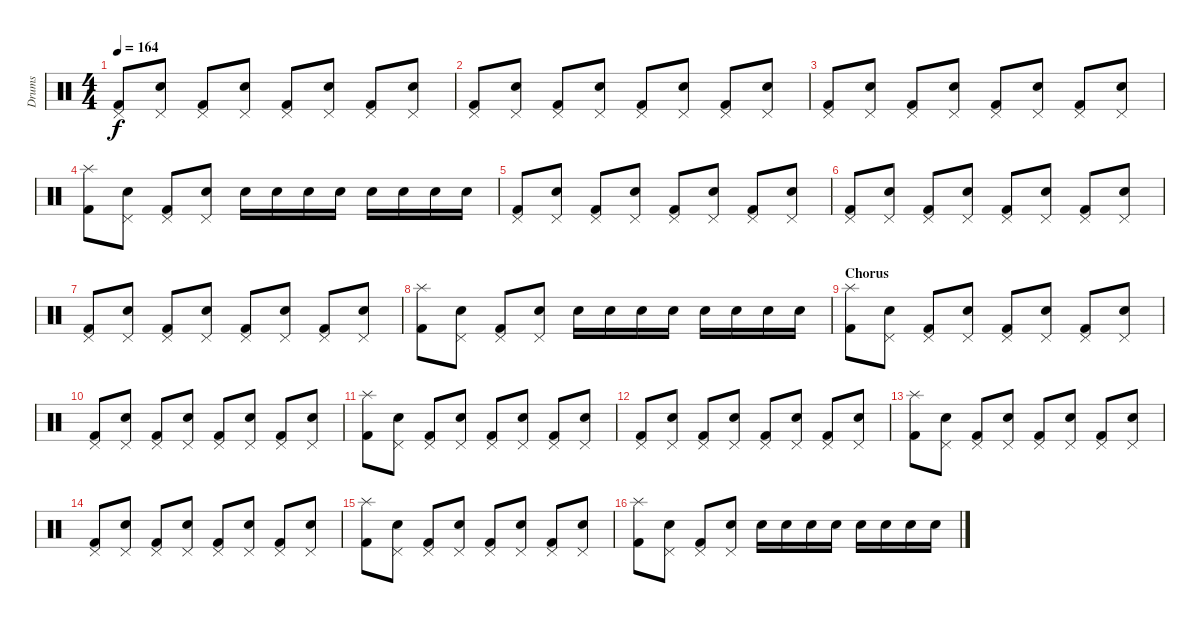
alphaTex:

\track ("Drums" "Drums") {instrument percussion}
\staff {score}
\articulation defaults
\ts (4 4)
\tempo 164
\clef neutral
\ks c
("Pedal Hi-Hat (hit)" "Kick (hit) 2").8{dy f} ("Pedal Hi-Hat (hit)" "Electric Snare (hit)").8 ("Pedal Hi-Hat (hit)" "Kick (hit) 2").8 ("Pedal Hi-Hat (hit)" "Electric Snare (hit)").8 ("Pedal Hi-Hat (hit)" "Kick (hit) 2").8 ("Pedal Hi-Hat (hit)" "Electric Snare (hit)").8 ("Pedal Hi-Hat (hit)" "Kick (hit) 2").8 ("Pedal Hi-Hat (hit)" "Electric Snare (hit)").8 |
("Pedal Hi-Hat (hit)" "Kick (hit) 2").8 ("Pedal Hi-Hat (hit)" "Electric Snare (hit)").8 ("Pedal Hi-Hat (hit)" "Kick (hit) 2").8 ("Pedal Hi-Hat (hit)" "Electric Snare (hit)").8 ("Pedal Hi-Hat (hit)" "Kick (hit) 2").8 ("Pedal Hi-Hat (hit)" "Electric Snare (hit)").8 ("Pedal Hi-Hat (hit)" "Kick (hit) 2").8 ("Pedal Hi-Hat (hit)" "Electric Snare (hit)").8 |
("Pedal Hi-Hat (hit)" "Kick (hit) 2").8 ("Pedal Hi-Hat (hit)" "Electric Snare (hit)").8 ("Pedal Hi-Hat (hit)" "Kick (hit) 2").8 ("Pedal Hi-Hat (hit)" "Electric Snare (hit)").8 ("Pedal Hi-Hat (hit)" "Kick (hit) 2").8 ("Pedal Hi-Hat (hit)" "Electric Snare (hit)").8 ("Pedal Hi-Hat (hit)" "Kick (hit) 2").8 ("Pedal Hi-Hat (hit)" "Electric Snare (hit)").8 |
("Splash (hit)" "Kick (hit) 2").8 ("Pedal Hi-Hat (hit)" "Electric Snare (hit)").8 ("Pedal Hi-Hat (hit)" "Kick (hit) 2").8 ("Pedal Hi-Hat (hit)" "Electric Snare (hit)").8 "Electric Snare (hit)".16 "Electric Snare (hit)".16 "Electric Snare (hit)".16 "Electric Snare (hit)".16 "Electric Snare (hit)".16 "Electric Snare (hit)".16 "Electric Snare (hit)".16 "Electric Snare (hit)".16 |
("Pedal Hi-Hat (hit)" "Kick (hit) 2").8 ("Pedal Hi-Hat (hit)" "Electric Snare (hit)").8 ("Pedal Hi-Hat (hit)" "Kick (hit) 2").8 ("Pedal Hi-Hat (hit)" "Electric Snare (hit)").8 ("Pedal Hi-Hat (hit)" "Kick (hit) 2").8 ("Pedal Hi-Hat (hit)" "Electric Snare (hit)").8 ("Pedal Hi-Hat (hit)" "Kick (hit) 2").8 ("Pedal Hi-Hat (hit)" "Electric Snare (hit)").8 |
("Pedal Hi-Hat (hit)" "Kick (hit) 2").8 ("Pedal Hi-Hat (hit)" "Electric Snare (hit)").8 ("Pedal Hi-Hat (hit)" "Kick (hit) 2").8 ("Pedal Hi-Hat (hit)" "Electric Snare (hit)").8 ("Pedal Hi-Hat (hit)" "Kick (hit) 2").8 ("Pedal Hi-Hat (hit)" "Electric Snare (hit)").8 ("Pedal Hi-Hat (hit)" "Kick (hit) 2").8 ("Pedal Hi-Hat (hit)" "Electric Snare (hit)").8 |
("Pedal Hi-Hat (hit)" "Kick (hit) 2").8 ("Pedal Hi-Hat (hit)" "Electric Snare (hit)").8 ("Pedal Hi-Hat (hit)" "Kick (hit) 2").8 ("Pedal Hi-Hat (hit)" "Electric Snare (hit)").8 ("Pedal Hi-Hat (hit)" "Kick (hit) 2").8 ("Pedal Hi-Hat (hit)" "Electric Snare (hit)").8 ("Pedal Hi-Hat (hit)" "Kick (hit) 2").8 ("Pedal Hi-Hat (hit)" "Electric Snare (hit)").8 |
("Splash (hit)" "Kick (hit) 2").8 ("Pedal Hi-Hat (hit)" "Electric Snare (hit)").8 ("Pedal Hi-Hat (hit)" "Kick (hit) 2").8 ("Pedal Hi-Hat (hit)" "Electric Snare (hit)").8 "Electric Snare (hit)".16 "Electric Snare (hit)".16 "Electric Snare (hit)".16 "Electric Snare (hit)".16 "Electric Snare (hit)".16 "Electric Snare (hit)".16 "Electric Snare (hit)".16 "Electric Snare (hit)".16 |
\section ("" "Chorus")
("Splash (hit)" "Kick (hit) 2").8 ("Pedal Hi-Hat (hit)" "Electric Snare (hit)").8 ("Pedal Hi-Hat (hit)" "Kick (hit) 2").8 ("Pedal Hi-Hat (hit)" "Electric Snare (hit)").8 ("Pedal Hi-Hat (hit)" "Kick (hit) 2").8 ("Pedal Hi-Hat (hit)" "Electric Snare (hit)").8 ("Pedal Hi-Hat (hit)" "Kick (hit) 2").8 ("Pedal Hi-Hat (hit)" "Electric Snare (hit)").8 |
("Pedal Hi-Hat (hit)" "Kick (hit) 2").8 ("Pedal Hi-Hat (hit)" "Electric Snare (hit)").8 ("Pedal Hi-Hat (hit)" "Kick (hit) 2").8 ("Pedal Hi-Hat (hit)" "Electric Snare (hit)").8 ("Pedal Hi-Hat (hit)" "Kick (hit) 2").8 ("Pedal Hi-Hat (hit)" "Electric Snare (hit)").8 ("Pedal Hi-Hat (hit)" "Kick (hit) 2").8 ("Pedal Hi-Hat (hit)" "Electric Snare (hit)").8 |
("Splash (hit)" "Kick (hit) 2").8 ("Pedal Hi-Hat (hit)" "Electric Snare (hit)").8 ("Pedal Hi-Hat (hit)" "Kick (hit) 2").8 ("Pedal Hi-Hat (hit)" "Electric Snare (hit)").8 ("Pedal Hi-Hat (hit)" "Kick (hit) 2").8 ("Pedal Hi-Hat (hit)" "Electric Snare (hit)").8 ("Pedal Hi-Hat (hit)" "Kick (hit) 2").8 ("Pedal Hi-Hat (hit)" "Electric Snare (hit)").8 |
("Pedal Hi-Hat (hit)" "Kick (hit) 2").8 ("Pedal Hi-Hat (hit)" "Electric Snare (hit)").8 ("Pedal Hi-Hat (hit)" "Kick (hit) 2").8 ("Pedal Hi-Hat (hit)" "Electric Snare (hit)").8 ("Pedal Hi-Hat (hit)" "Kick (hit) 2").8 ("Pedal Hi-Hat (hit)" "Electric Snare (hit)").8 ("Pedal Hi-Hat (hit)" "Kick (hit) 2").8 ("Pedal Hi-Hat (hit)" "Electric Snare (hit)").8 |
("Splash (hit)" "Kick (hit) 2").8 ("Pedal Hi-Hat (hit)" "Electric Snare (hit)").8 ("Pedal Hi-Hat (hit)" "Kick (hit) 2").8 ("Pedal Hi-Hat (hit)" "Electric Snare (hit)").8 ("Pedal Hi-Hat (hit)" "Kick (hit) 2").8 ("Pedal Hi-Hat (hit)" "Electric Snare (hit)").8 ("Pedal Hi-Hat (hit)" "Kick (hit) 2").8 ("Pedal Hi-Hat (hit)" "Electric Snare (hit)").8 |
("Pedal Hi-Hat (hit)" "Kick (hit) 2").8 ("Pedal Hi-Hat (hit)" "Electric Snare (hit)").8 ("Pedal Hi-Hat (hit)" "Kick (hit) 2").8 ("Pedal Hi-Hat (hit)" "Electric Snare (hit)").8 ("Pedal Hi-Hat (hit)" "Kick (hit) 2").8 ("Pedal Hi-Hat (hit)" "Electric Snare (hit)").8 ("Pedal Hi-Hat (hit)" "Kick (hit) 2").8 ("Pedal Hi-Hat (hit)" "Electric Snare (hit)").8 |
("Splash (hit)" "Kick (hit) 2").8 ("Pedal Hi-Hat (hit)" "Electric Snare (hit)").8 ("Pedal Hi-Hat (hit)" "Kick (hit) 2").8 ("Pedal Hi-Hat (hit)" "Electric Snare (hit)").8 ("Pedal Hi-Hat (hit)" "Kick (hit) 2").8 ("Pedal Hi-Hat (hit)" "Electric Snare (hit)").8 ("Pedal Hi-Hat (hit)" "Kick (hit) 2").8 ("Pedal Hi-Hat (hit)" "Electric Snare (hit)").8 |
("Splash (hit)" "Kick (hit) 2").8 ("Pedal Hi-Hat (hit)" "Electric Snare (hit)").8 ("Pedal Hi-Hat (hit)" "Kick (hit) 2").8 ("Pedal Hi-Hat (hit)" "Electric Snare (hit)").8 "Electric Snare (hit)".16 "Electric Snare (hit)".16 "Electric Snare (hit)".16 "Electric Snare (hit)".16 "Electric Snare (hit)".16 "Electric Snare (hit)".16 "Electric Snare (hit)".16 "Electric Snare (hit)".16
